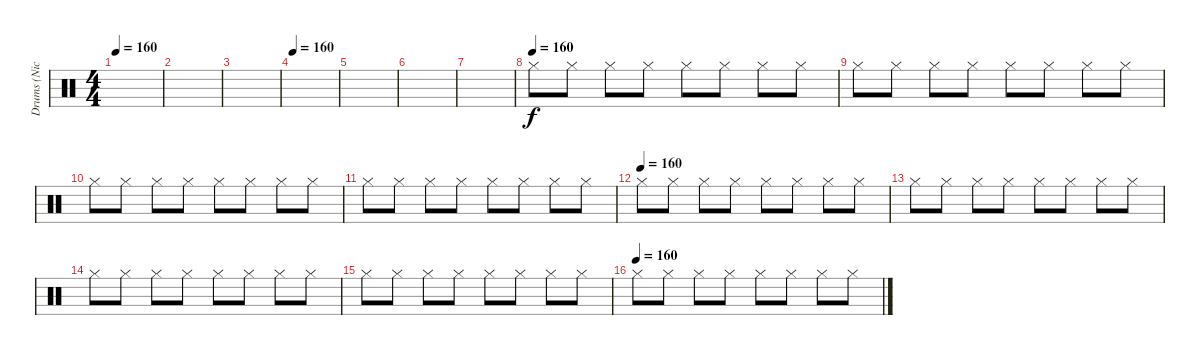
\track ("Drums (Nicko McBrain)" "Drums (Nic") {instrument percussion}
\staff {score}
\articulation defaults
\ts (4 4)
\tempo 160
\clef neutral
\ks c
|
|
|
\tempo 160
|
|
|
|
\tempo (160)
"Hi-Hat (closed)".8 "Hi-Hat (closed)".8 "Hi-Hat (closed)".8 "Hi-Hat (closed)".8 "Hi-Hat (closed)".8 "Hi-Hat (closed)".8 "Hi-Hat (closed)".8 "Hi-Hat (closed)".8 |
"Hi-Hat (closed)".8 "Hi-Hat (closed)".8 "Hi-Hat (closed)".8 "Hi-Hat (closed)".8 "Hi-Hat (closed)".8 "Hi-Hat (closed)".8 "Hi-Hat (closed)".8 "Hi-Hat (closed)".8 |
"Hi-Hat (closed)".8 "Hi-Hat (closed)".8 "Hi-Hat (closed)".8 "Hi-Hat (closed)".8 "Hi-Hat (closed)".8 "Hi-Hat (closed)".8 "Hi-Hat (closed)".8 "Hi-Hat (closed)".8 |
"Hi-Hat (closed)".8 "Hi-Hat (closed)".8 "Hi-Hat (closed)".8 "Hi-Hat (closed)".8 "Hi-Hat (closed)".8 "Hi-Hat (closed)".8 "Hi-Hat (closed)".8 "Hi-Hat (closed)".8 |
\tempo (160)
"Hi-Hat (closed)".8 "Hi-Hat (closed)".8 "Hi-Hat (closed)".8 "Hi-Hat (closed)".8 "Hi-Hat (closed)".8 "Hi-Hat (closed)".8 "Hi-Hat (closed)".8 "Hi-Hat (closed)".8 |
"Hi-Hat (closed)".8 "Hi-Hat (closed)".8 "Hi-Hat (closed)".8 "Hi-Hat (closed)".8 "Hi-Hat (closed)".8 "Hi-Hat (closed)".8 "Hi-Hat (closed)".8 "Hi-Hat (closed)".8 |
"Hi-Hat (closed)".8 "Hi-Hat (closed)".8 "Hi-Hat (closed)".8 "Hi-Hat (closed)".8 "Hi-Hat (closed)".8 "Hi-Hat (closed)".8 "Hi-Hat (closed)".8 "Hi-Hat (closed)".8 |
"Hi-Hat (closed)".8 "Hi-Hat (closed)".8 "Hi-Hat (closed)".8 "Hi-Hat (closed)".8 "Hi-Hat (closed)".8 "Hi-Hat (closed)".8 "Hi-Hat (closed)".8 "Hi-Hat (closed)".8 |
\tempo (160)
"Hi-Hat (closed)".8 "Hi-Hat (closed)".8 "Hi-Hat (closed)".8 "Hi-Hat (closed)".8 "Hi-Hat (closed)".8 "Hi-Hat (closed)".8 "Hi-Hat (closed)".8 "Hi-Hat (closed)".8
